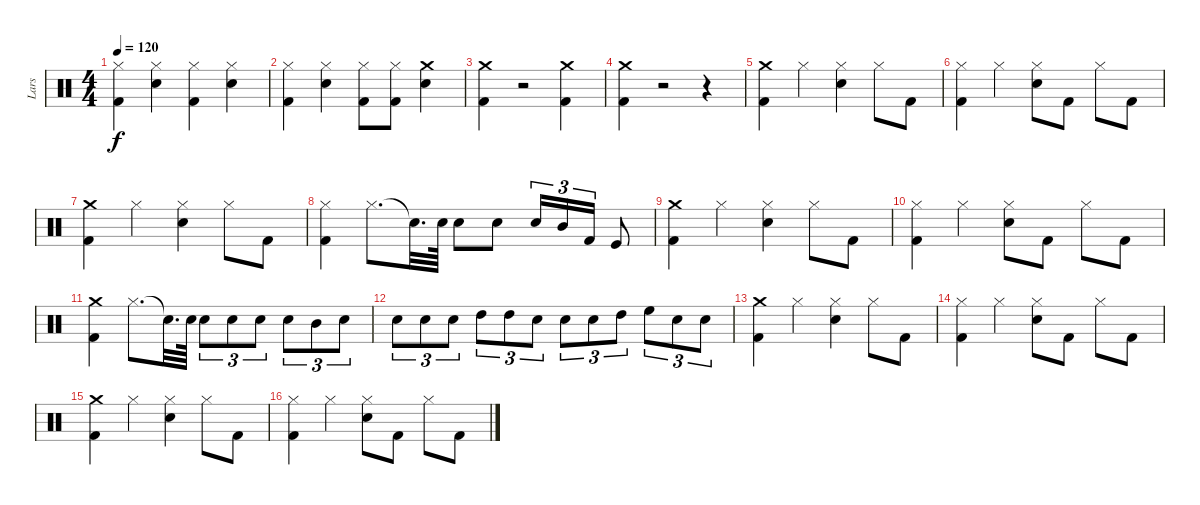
\track ("Lars" "Lars") {instrument percussion}
\staff {score}
\articulation defaults
\ts (4 4)
\tempo 120
\clef neutral
\ks c
("Kick (hit) 2" "Hi-Hat (closed)").4{dy f} ("Snare (hit) 2" "Hi-Hat (closed)").4 ("Kick (hit) 2" "Hi-Hat (closed)").4 ("Snare (hit) 2" "Hi-Hat (closed)").4 |
("Hi-Hat (closed)" "Kick (hit) 2").4 ("Snare (hit) 2" "Hi-Hat (closed)").4 ("Hi-Hat (closed)" "Kick (hit) 2").8 ("Hi-Hat (closed)" "Kick (hit) 2").8 ("Crash medium (hit)" "Snare (hit) 2").4 |
("Kick (hit) 2" "Crash medium (hit)").4 r.2 ("Crash medium (hit)" "Kick (hit) 2").4 |
("Kick (hit) 2" "Crash medium (hit)").4 r.2 r.4 |
("Kick (hit) 2" "Crash medium (hit)").4 "Hi-Hat (closed)".4 ("Snare (hit) 2" "Hi-Hat (closed)").4 "Hi-Hat (closed)".8 "Kick (hit) 2".8 |
("Kick (hit) 2" "Hi-Hat (closed)").4 "Hi-Hat (closed)".4 ("Snare (hit) 2" "Hi-Hat (closed)").8 "Kick (hit) 2".8 "Hi-Hat (closed)".8 "Kick (hit) 2".8 |
("Kick (hit) 2" "Crash medium (hit)").4 "Hi-Hat (closed)".4 ("Snare (hit) 2" "Hi-Hat (closed)").4 "Hi-Hat (closed)".8 "Kick (hit) 2".8 |
("Hi-Hat (closed)" "Kick (hit) 2").4 "Hi-Hat (closed)".8{d} "Snare (hit)"{t}.32{d} "Snare (hit) 2".64 "Snare (hit) 2".8 "Snare (hit) 2".8 "Snare (hit) 2".16{tu (3 2)} "Mid Tom (hit)".16{tu (3 2)} "Kick (hit) 2".16{tu (3 2)} "Kick (hit)".8 |
("Kick (hit) 2" "Crash medium (hit)").4 "Hi-Hat (closed)".4 ("Snare (hit) 2" "Hi-Hat (closed)").4 "Hi-Hat (closed)".8 "Kick (hit) 2".8 |
("Kick (hit) 2" "Hi-Hat (closed)").4 "Hi-Hat (closed)".4 ("Snare (hit) 2" "Hi-Hat (closed)").8 "Kick (hit) 2".8 "Hi-Hat (closed)".8 "Kick (hit) 2".8 |
("Kick (hit) 2" "Crash medium (hit)").4 "Hi-Hat (closed)".8{d} "Snare (hit)"{t}.32{d} "Snare (hit) 2".64 "Snare (hit) 2".8{tu (3 2)} "Snare (hit) 2".8{tu (3 2)} "Snare (hit) 2".8{tu (3 2)} "Snare (hit) 2".8{tu (3 2)} "Mid Tom (hit)".8{tu (3 2)} "Snare (hit) 2".8{tu (3 2)} |
"Snare (hit) 2".8{tu (3 2)} "Snare (hit) 2".8{tu (3 2)} "Snare (hit) 2".8{tu (3 2)} "High Tom (hit)".8{tu (3 2)} "High Tom (hit)".8{tu (3 2)} "Snare (hit) 2".8{tu (3 2)} "Snare (hit) 2".8{tu (3 2)} "Snare (hit) 2".8{tu (3 2)} "High Tom (hit)".8{tu (3 2)} "High Floor Tom (hit)".8{tu (3 2)} "Snare (hit) 2".8{tu (3 2)} "Snare (hit) 2".8{tu (3 2)} |
("Kick (hit) 2" "Crash medium (hit)").4 "Hi-Hat (closed)".4 ("Snare (hit) 2" "Hi-Hat (closed)").4 "Hi-Hat (closed)".8 "Kick (hit) 2".8 |
("Hi-Hat (closed)" "Kick (hit) 2").4 "Hi-Hat (closed)".4 ("Snare (hit) 2" "Hi-Hat (closed)").8 "Kick (hit) 2".8 "Hi-Hat (closed)".8 "Kick (hit) 2".8 |
("Kick (hit) 2" "Crash medium (hit)").4 "Hi-Hat (closed)".4 ("Snare (hit) 2" "Hi-Hat (closed)").4 "Hi-Hat (closed)".8 "Kick (hit) 2".8 |
("Hi-Hat (closed)" "Kick (hit) 2").4 "Hi-Hat (closed)".4 ("Snare (hit) 2" "Hi-Hat (closed)").8 "Kick (hit) 2".8 "Hi-Hat (closed)".8 "Kick (hit) 2".8
